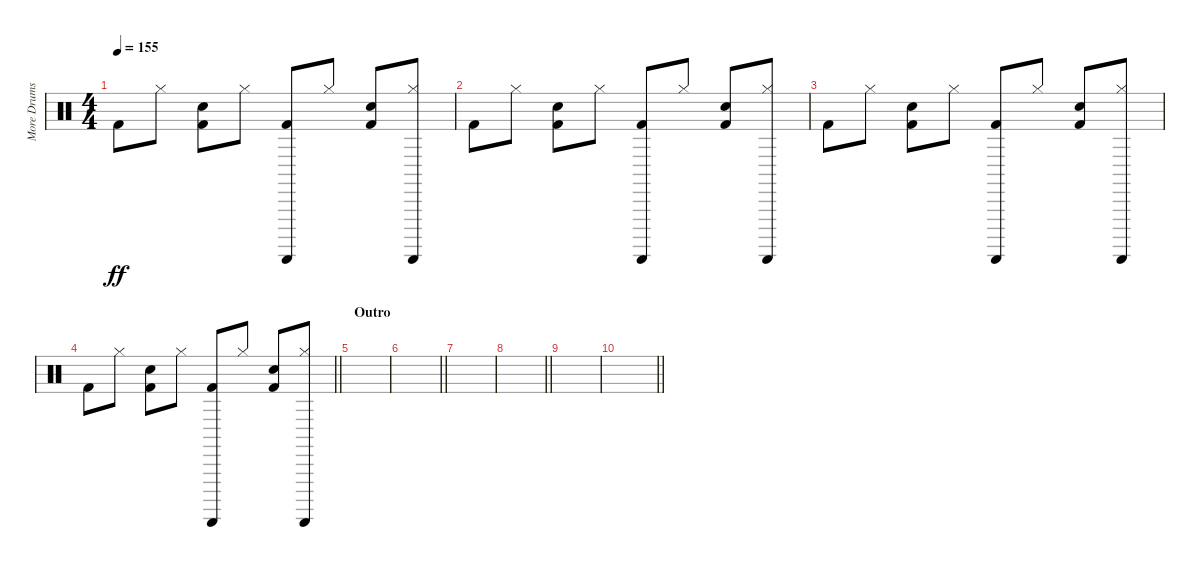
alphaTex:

\track ("More Drums" "More Drums") {instrument percussion}
\staff {score}
\articulation defaults
\ts (4 4)
\tempo 155
\clef neutral
\ks c "Kick (hit) 2".8{dy ff} "Hi-Hat (closed)".8
("Kick (hit) 2" "Electric Snare (hit)").8 "Hi-Hat (closed)".8 ("Kick (hit) 2" "Guiro (scrap-return)").8 "Hi-Hat (closed)".8 ("Kick (hit) 2" "Electric Snare (hit)").8 ("Hi-Hat (closed)" "Guiro (scrap-return)").8 |
"Kick (hit) 2".8 "Hi-Hat (closed)".8 ("Kick (hit) 2" "Electric Snare (hit)").8 "Hi-Hat (closed)".8 ("Kick (hit) 2" "Guiro (scrap-return)").8 "Hi-Hat (closed)".8 ("Kick (hit) 2" "Electric Snare (hit)").8 ("Hi-Hat (closed)" "Guiro (scrap-return)").8 |
"Kick (hit) 2".8 "Hi-Hat (closed)".8 ("Kick (hit) 2" "Electric Snare (hit)").8 "Hi-Hat (closed)".8 ("Kick (hit) 2" "Guiro (scrap-return)").8 "Hi-Hat (closed)".8 ("Kick (hit) 2" "Electric Snare (hit)").8 ("Hi-Hat (closed)" "Guiro (scrap-return)").8 |
\barLineRight lightlight "Kick (hit) 2".8 "Hi-Hat (closed)".8
("Kick (hit) 2" "Electric Snare (hit)").8 "Hi-Hat (closed)".8 ("Kick (hit) 2" "Guiro (scrap-return)").8 "Hi-Hat (closed)".8 ("Kick (hit) 2" "Electric Snare (hit)").8 ("Hi-Hat (closed)" "Guiro (scrap-return)").8 |
\section ("" "Outro")
|
\barLineRight lightlight
|
|
\barLineRight lightlight
|
|
\barLineRight lightlight
